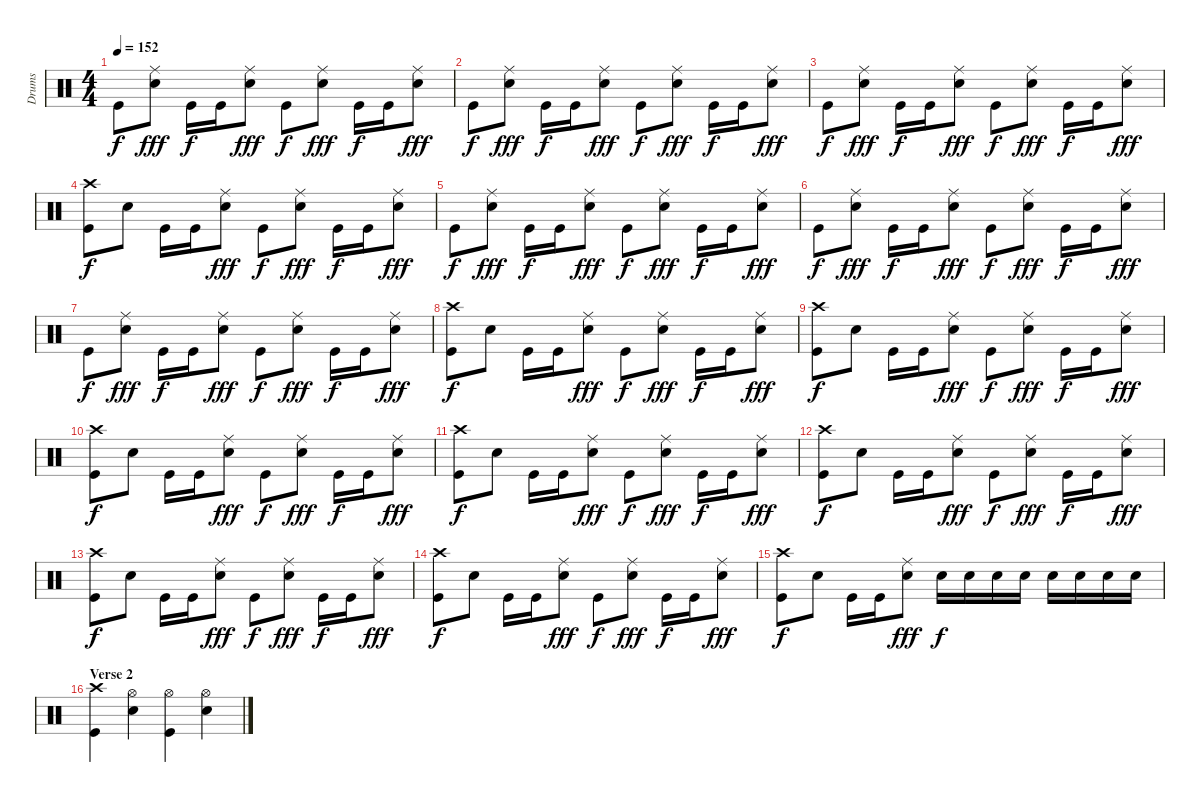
\track ("Drums" "Drums") {instrument percussion}
\staff {score}
\articulation defaults
\ts (4 4)
\tempo 152
\clef neutral
\ks c "Kick (hit)".8{dy f}
("Ride (middle)" "Snare (hit) 2").8{dy fff} "Kick (hit)".16{dy f} "Kick (hit)".16 ("Ride (middle)" "Snare (hit) 2").8{dy fff} "Kick (hit)".8{dy f} ("Ride (middle)" "Snare (hit) 2").8{dy fff} "Kick (hit)".16{dy f} "Kick (hit)".16 ("Ride (middle)" "Snare (hit) 2").8{dy fff} |
"Kick (hit)".8{dy f} ("Ride (middle)" "Snare (hit) 2").8{dy fff} "Kick (hit)".16{dy f} "Kick (hit)".16 ("Ride (middle)" "Snare (hit) 2").8{dy fff} "Kick (hit)".8{dy f} ("Ride (middle)" "Snare (hit) 2").8{dy fff} "Kick (hit)".16{dy f} "Kick (hit)".16 ("Ride (middle)" "Snare (hit) 2").8{dy fff} |
"Kick (hit)".8{dy f} ("Ride (middle)" "Snare (hit) 2").8{dy fff} "Kick (hit)".16{dy f} "Kick (hit)".16 ("Ride (middle)" "Snare (hit) 2").8{dy fff} "Kick (hit)".8{dy f} ("Ride (middle)" "Snare (hit) 2").8{dy fff} "Kick (hit)".16{dy f} "Kick (hit)".16 ("Ride (middle)" "Snare (hit) 2").8{dy fff} |
("Crash high (hit)" "Kick (hit)").8{dy f} "Snare (hit) 2".8 "Kick (hit)".16 "Kick (hit)".16 ("Ride (middle)" "Snare (hit) 2").8{dy fff} "Kick (hit)".8{dy f} ("Ride (middle)" "Snare (hit) 2").8{dy fff} "Kick (hit)".16{dy f} "Kick (hit)".16 ("Ride (middle)" "Snare (hit) 2").8{dy fff} |
"Kick (hit)".8{dy f} ("Ride (middle)" "Snare (hit) 2").8{dy fff} "Kick (hit)".16{dy f} "Kick (hit)".16 ("Ride (middle)" "Snare (hit) 2").8{dy fff} "Kick (hit)".8{dy f} ("Ride (middle)" "Snare (hit) 2").8{dy fff} "Kick (hit)".16{dy f} "Kick (hit)".16 ("Ride (middle)" "Snare (hit) 2").8{dy fff} |
"Kick (hit)".8{dy f} ("Ride (middle)" "Snare (hit) 2").8{dy fff} "Kick (hit)".16{dy f} "Kick (hit)".16 ("Ride (middle)" "Snare (hit) 2").8{dy fff} "Kick (hit)".8{dy f} ("Ride (middle)" "Snare (hit) 2").8{dy fff} "Kick (hit)".16{dy f} "Kick (hit)".16 ("Ride (middle)" "Snare (hit) 2").8{dy fff} |
"Kick (hit)".8{dy f} ("Ride (middle)" "Snare (hit) 2").8{dy fff} "Kick (hit)".16{dy f} "Kick (hit)".16 ("Ride (middle)" "Snare (hit) 2").8{dy fff} "Kick (hit)".8{dy f} ("Ride (middle)" "Snare (hit) 2").8{dy fff} "Kick (hit)".16{dy f} "Kick (hit)".16 ("Ride (middle)" "Snare (hit) 2").8{dy fff} |
("Crash high (hit)" "Kick (hit)").8{dy f} "Snare (hit) 2".8 "Kick (hit)".16 "Kick (hit)".16 ("Ride (middle)" "Snare (hit) 2").8{dy fff} "Kick (hit)".8{dy f} ("Ride (middle)" "Snare (hit) 2").8{dy fff} "Kick (hit)".16{dy f} "Kick (hit)".16 ("Ride (middle)" "Snare (hit) 2").8{dy fff} |
("Crash high (hit)" "Kick (hit)").8{dy f} "Snare (hit) 2".8 "Kick (hit)".16 "Kick (hit)".16 ("Ride (middle)" "Snare (hit) 2").8{dy fff} "Kick (hit)".8{dy f} ("Ride (middle)" "Snare (hit) 2").8{dy fff} "Kick (hit)".16{dy f} "Kick (hit)".16 ("Ride (middle)" "Snare (hit) 2").8{dy fff} |
("Crash high (hit)" "Kick (hit)").8{dy f} "Snare (hit) 2".8 "Kick (hit)".16 "Kick (hit)".16 ("Ride (middle)" "Snare (hit) 2").8{dy fff} "Kick (hit)".8{dy f} ("Ride (middle)" "Snare (hit) 2").8{dy fff} "Kick (hit)".16{dy f} "Kick (hit)".16 ("Ride (middle)" "Snare (hit) 2").8{dy fff} |
("Crash high (hit)" "Kick (hit)").8{dy f} "Snare (hit) 2".8 "Kick (hit)".16 "Kick (hit)".16 ("Ride (middle)" "Snare (hit) 2").8{dy fff} "Kick (hit)".8{dy f} ("Ride (middle)" "Snare (hit) 2").8{dy fff} "Kick (hit)".16{dy f} "Kick (hit)".16 ("Ride (middle)" "Snare (hit) 2").8{dy fff} |
("Crash high (hit)" "Kick (hit)").8{dy f} "Snare (hit) 2".8 "Kick (hit)".16 "Kick (hit)".16 ("Ride (middle)" "Snare (hit) 2").8{dy fff} "Kick (hit)".8{dy f} ("Ride (middle)" "Snare (hit) 2").8{dy fff} "Kick (hit)".16{dy f} "Kick (hit)".16 ("Ride (middle)" "Snare (hit) 2").8{dy fff} |
("Crash high (hit)" "Kick (hit)").8{dy f} "Snare (hit) 2".8 "Kick (hit)".16 "Kick (hit)".16 ("Ride (middle)" "Snare (hit) 2").8{dy fff} "Kick (hit)".8{dy f} ("Ride (middle)" "Snare (hit) 2").8{dy fff} "Kick (hit)".16{dy f} "Kick (hit)".16 ("Ride (middle)" "Snare (hit) 2").8{dy fff} |
("Crash high (hit)" "Kick (hit)").8{dy f} "Snare (hit) 2".8 "Kick (hit)".16 "Kick (hit)".16 ("Ride (middle)" "Snare (hit) 2").8{dy fff} "Kick (hit)".8{dy f} ("Ride (middle)" "Snare (hit) 2").8{dy fff} "Kick (hit)".16{dy f} "Kick (hit)".16 ("Ride (middle)" "Snare (hit) 2").8{dy fff} |
("Crash high (hit)" "Kick (hit)").8{dy f} "Snare (hit) 2".8 "Kick (hit)".16 "Kick (hit)".16 ("Ride (middle)" "Snare (hit) 2").8{dy fff} "Snare (hit) 2".16{dy f} "Snare (hit) 2".16 "Snare (hit) 2".16 "Snare (hit) 2".16 "Snare (hit) 2".16 "Snare (hit) 2".16 "Snare (hit) 2".16 "Snare (hit) 2".16 |
\section ("" "Verse 2")
("Crash high (hit)" "Kick (hit)").4 ("Hi-Hat (open)" "Snare (hit) 2").4 ("Hi-Hat (open)" "Kick (hit)").4 ("Hi-Hat (open)" "Snare (hit) 2").4
